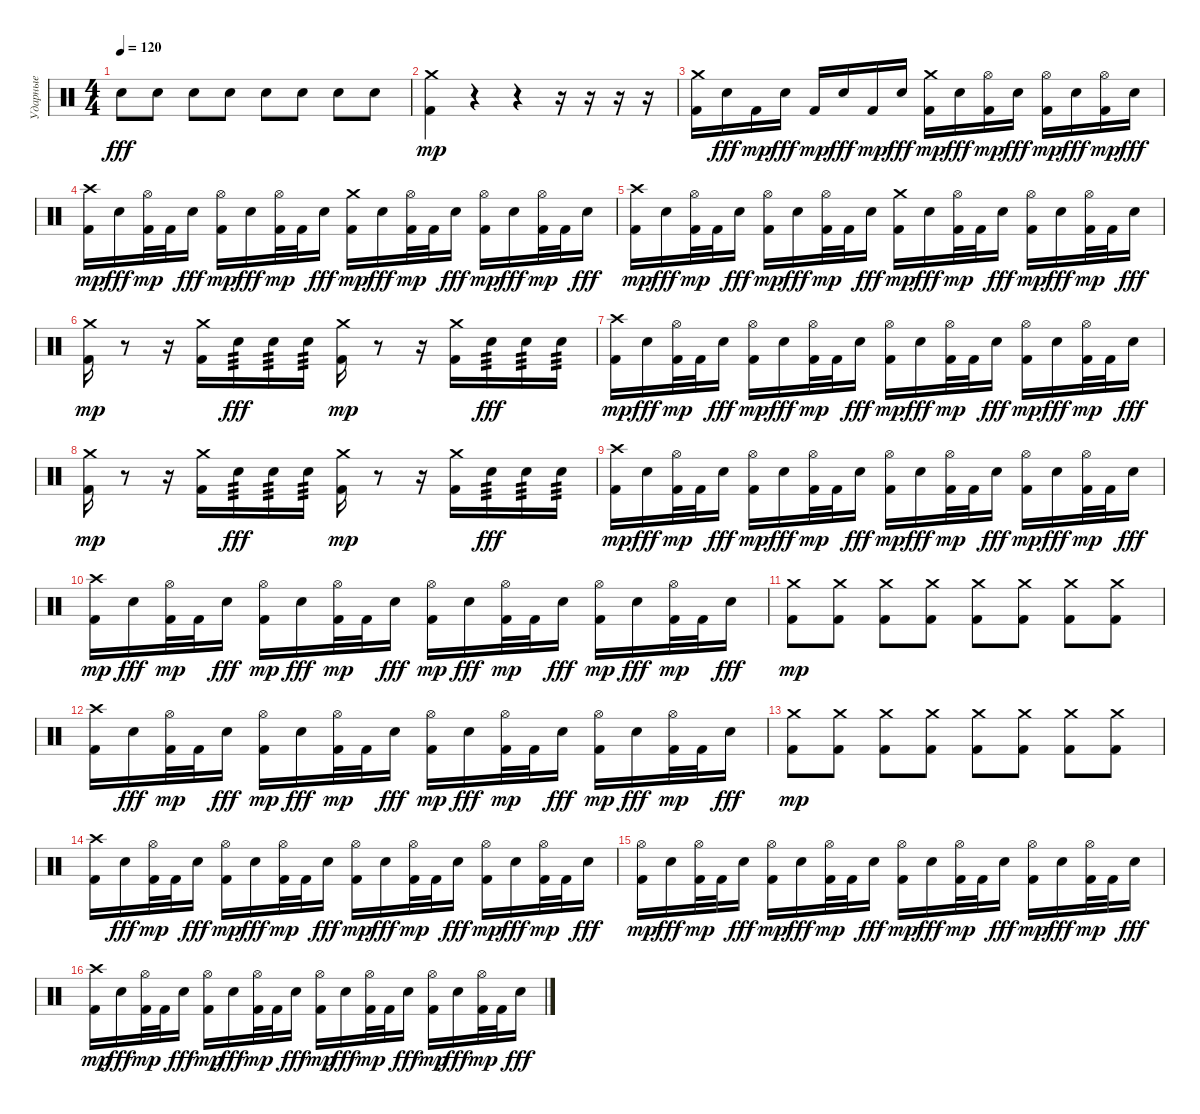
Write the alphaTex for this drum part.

\track ("Ударные" "Ударные") {instrument percussion}
\staff {score}
\articulation defaults
\ts (4 4)
\tempo 120
\clef neutral
\ks c "Snare (hit) 2".8{dy fff} "Snare (hit) 2".8 "Snare (hit) 2".8 "Snare (hit) 2".8 "Snare (hit) 2".8 "Snare (hit) 2".8 "Snare (hit) 2".8 "Snare (hit) 2".8
|
("Crash medium (hit)" "Kick (hit) 2").4{dy mp} r.4 r.4 r.16 r.16 r.16 r.16 |
("Crash medium (hit)" "Kick (hit) 2").16 "Snare (hit) 2".16{dy fff} "Kick (hit) 2".16{dy mp} "Snare (hit) 2".16{dy fff} "Kick (hit) 2".16{dy mp} "Snare (hit) 2".16{dy fff} "Kick (hit) 2".16{dy mp} "Snare (hit) 2".16{dy fff} ("Crash medium (hit)" "Kick (hit) 2").16{dy mp} "Snare (hit) 2".16{dy fff} ("Hi-Hat (open)" "Kick (hit) 2").16{dy mp} "Snare (hit) 2".16{dy fff} ("Hi-Hat (open)" "Kick (hit) 2").16{dy mp} "Snare (hit) 2".16{dy fff} ("Hi-Hat (open)" "Kick (hit) 2").16{dy mp} "Snare (hit) 2".16{dy fff} |
("Crash high (hit)" "Kick (hit) 2").16{dy mp} "Snare (hit) 2".16{dy fff} ("Hi-Hat (open)" "Kick (hit) 2").32{dy mp} "Kick (hit) 2".32 "Snare (hit) 2".16{dy fff} ("Hi-Hat (open)" "Kick (hit) 2").16{dy mp} "Snare (hit) 2".16{dy fff} ("Hi-Hat (open)" "Kick (hit) 2").32{dy mp} "Kick (hit) 2".32 "Snare (hit) 2".16{dy fff} ("Crash medium (hit)" "Kick (hit) 2").16{dy mp} "Snare (hit) 2".16{dy fff} ("Hi-Hat (open)" "Kick (hit) 2").32{dy mp} "Kick (hit) 2".32 "Snare (hit) 2".16{dy fff} ("Hi-Hat (open)" "Kick (hit) 2").16{dy mp} "Snare (hit) 2".16{dy fff} ("Hi-Hat (open)" "Kick (hit) 2").32{dy mp} "Kick (hit) 2".32 "Snare (hit) 2".16{dy fff} |
("Crash high (hit)" "Kick (hit) 2").16{dy mp} "Snare (hit) 2".16{dy fff} ("Hi-Hat (open)" "Kick (hit) 2").32{dy mp} "Kick (hit) 2".32 "Snare (hit) 2".16{dy fff} ("Hi-Hat (open)" "Kick (hit) 2").16{dy mp} "Snare (hit) 2".16{dy fff} ("Hi-Hat (open)" "Kick (hit) 2").32{dy mp} "Kick (hit) 2".32 "Snare (hit) 2".16{dy fff} ("Crash medium (hit)" "Kick (hit) 2").16{dy mp} "Snare (hit) 2".16{dy fff} ("Hi-Hat (open)" "Kick (hit) 2").32{dy mp} "Kick (hit) 2".32 "Snare (hit) 2".16{dy fff} ("Hi-Hat (open)" "Kick (hit) 2").16{dy mp} "Snare (hit) 2".16{dy fff} ("Hi-Hat (open)" "Kick (hit) 2").32{dy mp} "Kick (hit) 2".32 "Snare (hit) 2".16{dy fff} |
("Crash medium (hit)" "Kick (hit) 2").16{dy mp} r.8 r.16 ("Crash medium (hit)" "Kick (hit) 2").16 "Snare (hit) 2".16{tp 3 dy fff} "Snare (hit) 2".16{tp 3} "Snare (hit) 2".16{tp 3} ("Crash medium (hit)" "Kick (hit) 2").16{dy mp} r.8 r.16 ("Crash medium (hit)" "Kick (hit) 2").16 "Snare (hit) 2".16{tp 3 dy fff} "Snare (hit) 2".16{tp 3} "Snare (hit) 2".16{tp 3} |
("Crash high (hit)" "Kick (hit) 2").16{dy mp} "Snare (hit) 2".16{dy fff} ("Hi-Hat (open)" "Kick (hit) 2").32{dy mp} "Kick (hit) 2".32 "Snare (hit) 2".16{dy fff} ("Hi-Hat (open)" "Kick (hit) 2").16{dy mp} "Snare (hit) 2".16{dy fff} ("Hi-Hat (open)" "Kick (hit) 2").32{dy mp} "Kick (hit) 2".32 "Snare (hit) 2".16{dy fff} ("Hi-Hat (open)" "Kick (hit) 2").16{dy mp} "Snare (hit) 2".16{dy fff} ("Hi-Hat (open)" "Kick (hit) 2").32{dy mp} "Kick (hit) 2".32 "Snare (hit) 2".16{dy fff} ("Hi-Hat (open)" "Kick (hit) 2").16{dy mp} "Snare (hit) 2".16{dy fff} ("Hi-Hat (open)" "Kick (hit) 2").32{dy mp} "Kick (hit) 2".32 "Snare (hit) 2".16{dy fff} |
("Crash medium (hit)" "Kick (hit) 2").16{dy mp} r.8 r.16 ("Crash medium (hit)" "Kick (hit) 2").16 "Snare (hit) 2".16{tp 3 dy fff} "Snare (hit) 2".16{tp 3} "Snare (hit) 2".16{tp 3} ("Crash medium (hit)" "Kick (hit) 2").16{dy mp} r.8 r.16 ("Crash medium (hit)" "Kick (hit) 2").16 "Snare (hit) 2".16{tp 3 dy fff} "Snare (hit) 2".16{tp 3} "Snare (hit) 2".16{tp 3} |
("Crash high (hit)" "Kick (hit) 2").16{dy mp} "Snare (hit) 2".16{dy fff} ("Hi-Hat (open)" "Kick (hit) 2").32{dy mp} "Kick (hit) 2".32 "Snare (hit) 2".16{dy fff} ("Hi-Hat (open)" "Kick (hit) 2").16{dy mp} "Snare (hit) 2".16{dy fff} ("Hi-Hat (open)" "Kick (hit) 2").32{dy mp} "Kick (hit) 2".32 "Snare (hit) 2".16{dy fff} ("Hi-Hat (open)" "Kick (hit) 2").16{dy mp} "Snare (hit) 2".16{dy fff} ("Hi-Hat (open)" "Kick (hit) 2").32{dy mp} "Kick (hit) 2".32 "Snare (hit) 2".16{dy fff} ("Hi-Hat (open)" "Kick (hit) 2").16{dy mp} "Snare (hit) 2".16{dy fff} ("Hi-Hat (open)" "Kick (hit) 2").32{dy mp} "Kick (hit) 2".32 "Snare (hit) 2".16{dy fff} |
("Crash high (hit)" "Kick (hit) 2").16{dy mp} "Snare (hit) 2".16{dy fff} ("Hi-Hat (open)" "Kick (hit) 2").32{dy mp} "Kick (hit) 2".32 "Snare (hit) 2".16{dy fff} ("Hi-Hat (open)" "Kick (hit) 2").16{dy mp} "Snare (hit) 2".16{dy fff} ("Hi-Hat (open)" "Kick (hit) 2").32{dy mp} "Kick (hit) 2".32 "Snare (hit) 2".16{dy fff} ("Hi-Hat (open)" "Kick (hit) 2").16{dy mp} "Snare (hit) 2".16{dy fff} ("Hi-Hat (open)" "Kick (hit) 2").32{dy mp} "Kick (hit) 2".32 "Snare (hit) 2".16{dy fff} ("Hi-Hat (open)" "Kick (hit) 2").16{dy mp} "Snare (hit) 2".16{dy fff} ("Hi-Hat (open)" "Kick (hit) 2").32{dy mp} "Kick (hit) 2".32 "Snare (hit) 2".16{dy fff} |
("Crash medium (hit)" "Kick (hit) 2").8{dy mp} ("Crash medium (hit)" "Kick (hit) 2").8 ("Crash medium (hit)" "Kick (hit) 2").8 ("Crash medium (hit)" "Kick (hit) 2").8 ("Crash medium (hit)" "Kick (hit) 2").8 ("Crash medium (hit)" "Kick (hit) 2").8 ("Crash medium (hit)" "Kick (hit) 2").8 ("Crash medium (hit)" "Kick (hit) 2").8 |
("Crash high (hit)" "Kick (hit) 2").16 "Snare (hit) 2".16{dy fff} ("Hi-Hat (open)" "Kick (hit) 2").32{dy mp} "Kick (hit) 2".32 "Snare (hit) 2".16{dy fff} ("Hi-Hat (open)" "Kick (hit) 2").16{dy mp} "Snare (hit) 2".16{dy fff} ("Hi-Hat (open)" "Kick (hit) 2").32{dy mp} "Kick (hit) 2".32 "Snare (hit) 2".16{dy fff} ("Hi-Hat (open)" "Kick (hit) 2").16{dy mp} "Snare (hit) 2".16{dy fff} ("Hi-Hat (open)" "Kick (hit) 2").32{dy mp} "Kick (hit) 2".32 "Snare (hit) 2".16{dy fff} ("Hi-Hat (open)" "Kick (hit) 2").16{dy mp} "Snare (hit) 2".16{dy fff} ("Hi-Hat (open)" "Kick (hit) 2").32{dy mp} "Kick (hit) 2".32 "Snare (hit) 2".16{dy fff} |
("Crash medium (hit)" "Kick (hit) 2").8{dy mp} ("Crash medium (hit)" "Kick (hit) 2").8 ("Crash medium (hit)" "Kick (hit) 2").8 ("Crash medium (hit)" "Kick (hit) 2").8 ("Crash medium (hit)" "Kick (hit) 2").8 ("Crash medium (hit)" "Kick (hit) 2").8 ("Crash medium (hit)" "Kick (hit) 2").8 ("Crash medium (hit)" "Kick (hit) 2").8 |
("Crash high (hit)" "Kick (hit) 2").16 "Snare (hit) 2".16{dy fff} ("Hi-Hat (open)" "Kick (hit) 2").32{dy mp} "Kick (hit) 2".32 "Snare (hit) 2".16{dy fff} ("Hi-Hat (open)" "Kick (hit) 2").16{dy mp} "Snare (hit) 2".16{dy fff} ("Hi-Hat (open)" "Kick (hit) 2").32{dy mp} "Kick (hit) 2".32 "Snare (hit) 2".16{dy fff} ("Hi-Hat (open)" "Kick (hit) 2").16{dy mp} "Snare (hit) 2".16{dy fff} ("Hi-Hat (open)" "Kick (hit) 2").32{dy mp} "Kick (hit) 2".32 "Snare (hit) 2".16{dy fff} ("Hi-Hat (open)" "Kick (hit) 2").16{dy mp} "Snare (hit) 2".16{dy fff} ("Hi-Hat (open)" "Kick (hit) 2").32{dy mp} "Kick (hit) 2".32 "Snare (hit) 2".16{dy fff} |
("Hi-Hat (open)" "Kick (hit) 2").16{dy mp} "Snare (hit) 2".16{dy fff} ("Hi-Hat (open)" "Kick (hit) 2").32{dy mp} "Kick (hit) 2".32 "Snare (hit) 2".16{dy fff} ("Hi-Hat (open)" "Kick (hit) 2").16{dy mp} "Snare (hit) 2".16{dy fff} ("Hi-Hat (open)" "Kick (hit) 2").32{dy mp} "Kick (hit) 2".32 "Snare (hit) 2".16{dy fff} ("Hi-Hat (open)" "Kick (hit) 2").16{dy mp} "Snare (hit) 2".16{dy fff} ("Hi-Hat (open)" "Kick (hit) 2").32{dy mp} "Kick (hit) 2".32 "Snare (hit) 2".16{dy fff} ("Hi-Hat (open)" "Kick (hit) 2").16{dy mp} "Snare (hit) 2".16{dy fff} ("Hi-Hat (open)" "Kick (hit) 2").32{dy mp} "Kick (hit) 2".32 "Snare (hit) 2".16{dy fff} |
("Crash high (hit)" "Kick (hit) 2").16{dy mp} "Snare (hit) 2".16{dy fff} ("Hi-Hat (open)" "Kick (hit) 2").32{dy mp} "Kick (hit) 2".32 "Snare (hit) 2".16{dy fff} ("Hi-Hat (open)" "Kick (hit) 2").16{dy mp} "Snare (hit) 2".16{dy fff} ("Hi-Hat (open)" "Kick (hit) 2").32{dy mp} "Kick (hit) 2".32 "Snare (hit) 2".16{dy fff} ("Hi-Hat (open)" "Kick (hit) 2").16{dy mp} "Snare (hit) 2".16{dy fff} ("Hi-Hat (open)" "Kick (hit) 2").32{dy mp} "Kick (hit) 2".32 "Snare (hit) 2".16{dy fff} ("Hi-Hat (open)" "Kick (hit) 2").16{dy mp} "Snare (hit) 2".16{dy fff} ("Hi-Hat (open)" "Kick (hit) 2").32{dy mp} "Kick (hit) 2".32 "Snare (hit) 2".16{dy fff}
